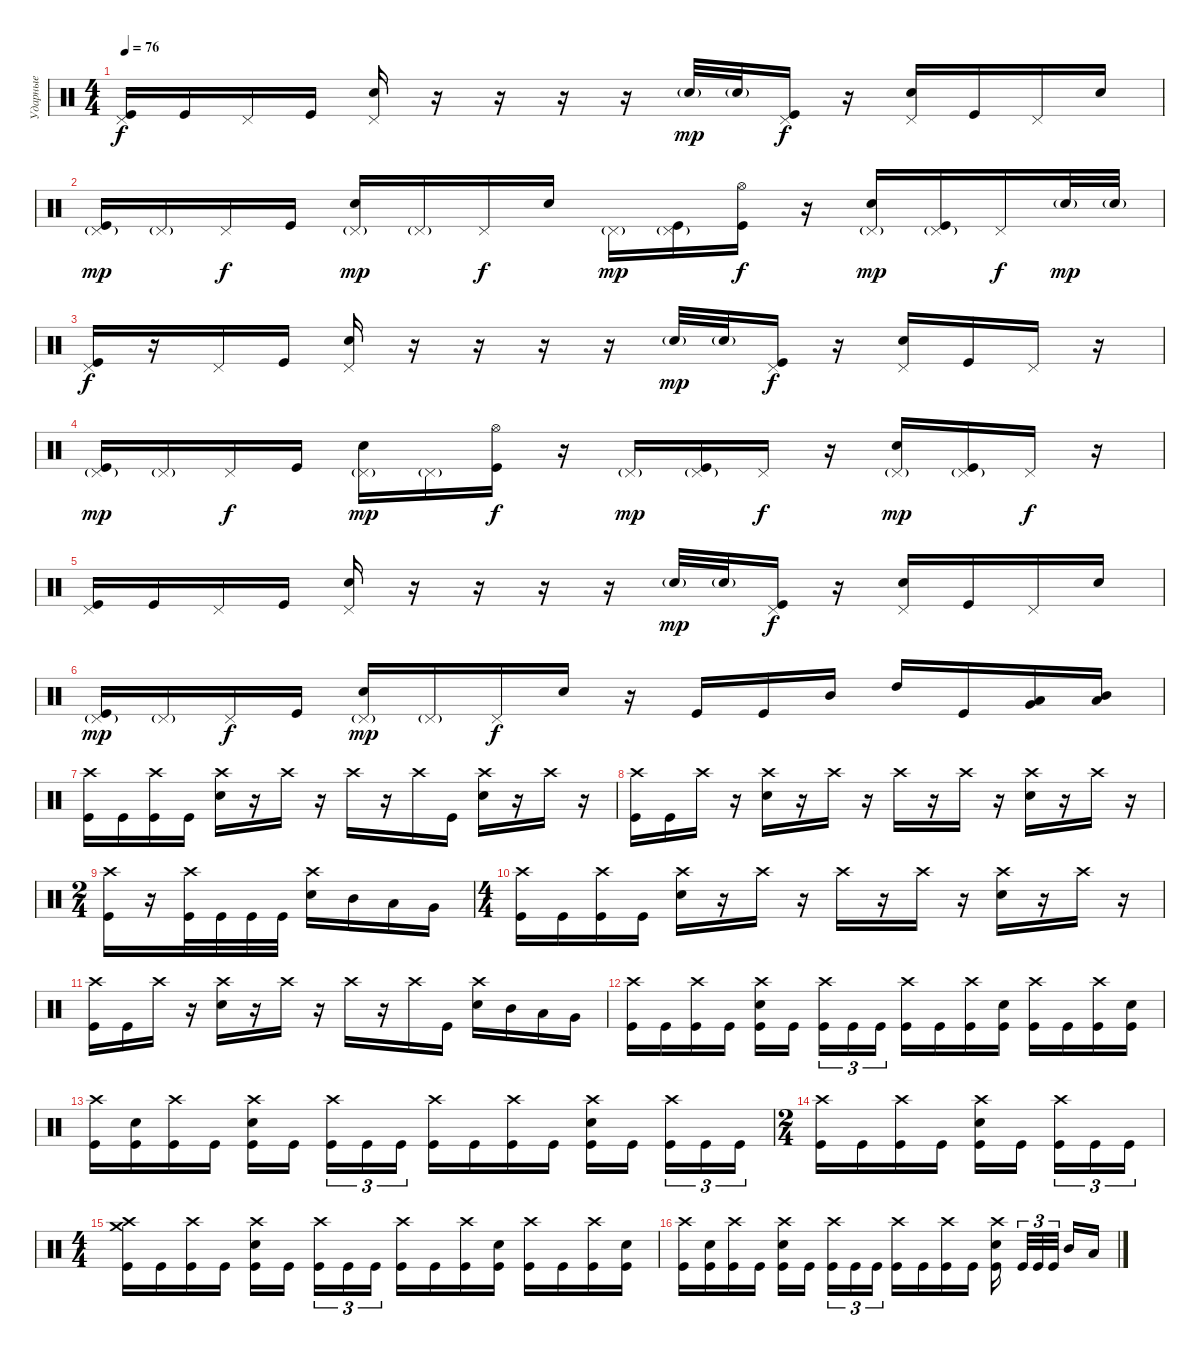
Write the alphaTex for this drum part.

\track ("Ударные" "Ударные") {instrument percussion}
\staff {score}
\articulation defaults
\ts (4 4)
\tempo 76
\clef neutral
\ks c
("Pedal Hi-Hat (hit)" "Kick (hit)").16{dy f} "Kick (hit)".16 "Pedal Hi-Hat (hit)".16 "Kick (hit)".16 ("Pedal Hi-Hat (hit)" "Snare (hit) 2").16 r.16 r.16 r.16 r.16 "Snare (hit) 2"{g}.32{dy mp} "Snare (hit) 2"{g}.32 ("Pedal Hi-Hat (hit)" "Kick (hit)").16{dy f} r.16 ("Pedal Hi-Hat (hit)" "Snare (hit) 2").16 "Kick (hit)".16 "Pedal Hi-Hat (hit)".16 "Snare (hit) 2".16 |
("Pedal Hi-Hat (hit)"{g} "Kick (hit)").16{dy mp} "Pedal Hi-Hat (hit)"{g}.16 "Pedal Hi-Hat (hit)".16{dy f} "Kick (hit)".16 ("Pedal Hi-Hat (hit)"{g} "Snare (hit) 2").16{dy mp} "Pedal Hi-Hat (hit)"{g}.16 "Pedal Hi-Hat (hit)".16{dy f} "Snare (hit) 2".16 "Pedal Hi-Hat (hit)"{g}.16{dy mp} ("Pedal Hi-Hat (hit)"{g} "Kick (hit)").16 ("Hi-Hat (open)" "Kick (hit)").16{dy f} r.16 ("Pedal Hi-Hat (hit)"{g} "Snare (hit) 2").16{dy mp} ("Pedal Hi-Hat (hit)"{g} "Kick (hit)").16 "Pedal Hi-Hat (hit)".16{dy f} "Snare (hit) 2"{g}.32{dy mp} "Snare (hit) 2"{g}.32 |
("Pedal Hi-Hat (hit)" "Kick (hit)").16{dy f} r.16 "Pedal Hi-Hat (hit)".16 "Kick (hit)".16 ("Pedal Hi-Hat (hit)" "Snare (hit) 2").16 r.16 r.16 r.16 r.16 "Snare (hit) 2"{g}.32{dy mp} "Snare (hit) 2"{g}.32 ("Pedal Hi-Hat (hit)" "Kick (hit)").16{dy f} r.16 ("Pedal Hi-Hat (hit)" "Snare (hit) 2").16 "Kick (hit)".16 "Pedal Hi-Hat (hit)".16 r.16 |
("Pedal Hi-Hat (hit)"{g} "Kick (hit)").16{dy mp} "Pedal Hi-Hat (hit)"{g}.16 "Pedal Hi-Hat (hit)".16{dy f} "Kick (hit)".16 ("Pedal Hi-Hat (hit)"{g} "Snare (hit) 2").16{dy mp} "Pedal Hi-Hat (hit)"{g}.16 ("Hi-Hat (open)" "Kick (hit)").16{dy f} r.16 "Pedal Hi-Hat (hit)"{g}.16{dy mp} ("Pedal Hi-Hat (hit)"{g} "Kick (hit)").16 "Pedal Hi-Hat (hit)".16{dy f} r.16 ("Pedal Hi-Hat (hit)"{g} "Snare (hit) 2").16{dy mp} ("Pedal Hi-Hat (hit)"{g} "Kick (hit)").16 "Pedal Hi-Hat (hit)".16{dy f} r.16 |
("Pedal Hi-Hat (hit)" "Kick (hit)").16 "Kick (hit)".16 "Pedal Hi-Hat (hit)".16 "Kick (hit)".16 ("Pedal Hi-Hat (hit)" "Snare (hit) 2").16 r.16 r.16 r.16 r.16 "Snare (hit) 2"{g}.32{dy mp} "Snare (hit) 2"{g}.32 ("Pedal Hi-Hat (hit)" "Kick (hit)").16{dy f} r.16 ("Pedal Hi-Hat (hit)" "Snare (hit) 2").16 "Kick (hit)".16 "Pedal Hi-Hat (hit)".16 "Snare (hit) 2".16 |
("Pedal Hi-Hat (hit)"{g} "Kick (hit)").16{dy mp} "Pedal Hi-Hat (hit)"{g}.16 "Pedal Hi-Hat (hit)".16{dy f} "Kick (hit)".16 ("Pedal Hi-Hat (hit)"{g} "Snare (hit) 2").16{dy mp} "Pedal Hi-Hat (hit)"{g}.16 "Pedal Hi-Hat (hit)".16{dy f} "Snare (hit) 2".16 r.16 "Kick (hit)".16 "Kick (hit)".16 "Mid Tom (hit)".16 "High Tom (hit)".16 "Kick (hit)".16 ("Low Tom (hit)" "Very Low Tom (hit)").16 ("Mid Tom (hit)" "Low Tom (hit)").16 |
("Crash high (hit)" "Kick (hit)").16 "Kick (hit)".16 ("Crash high (hit)" "Kick (hit)").16 "Kick (hit)".16 ("Crash high (hit)" "Snare (hit) 2").16 r.16 "Crash high (hit)".16 r.16 "Crash high (hit)".16 r.16 "Crash high (hit)".16 "Kick (hit)".16 ("Crash high (hit)" "Snare (hit) 2").16 r.16 "Crash high (hit)".16 r.16 |
("Crash high (hit)" "Kick (hit)").16 "Kick (hit)".16 "Crash high (hit)".16 r.16 ("Crash high (hit)" "Snare (hit) 2").16 r.16 "Crash high (hit)".16 r.16 "Crash high (hit)".16 r.16 "Crash high (hit)".16 r.16 ("Crash high (hit)" "Snare (hit) 2").16 r.16 "Crash high (hit)".16 r.16 |
\ts (2 4)
("Crash high (hit)" "Kick (hit)").16 r.16 ("Crash high (hit)" "Kick (hit)").32 "Kick (hit)".32 "Kick (hit)".32 "Kick (hit)".32 ("Crash high (hit)" "Snare (hit) 2").16 "Mid Tom (hit)".16 "Low Tom (hit)".16 "Very Low Tom (hit)".16 |
\ts (4 4)
("Crash high (hit)" "Kick (hit)").16 "Kick (hit)".16 ("Crash high (hit)" "Kick (hit)").16 "Kick (hit)".16 ("Crash high (hit)" "Snare (hit) 2").16 r.16 "Crash high (hit)".16 r.16 "Crash high (hit)".16 r.16 "Crash high (hit)".16 r.16 ("Crash high (hit)" "Snare (hit) 2").16 r.16 "Crash high (hit)".16 r.16 |
("Crash high (hit)" "Kick (hit)").16 "Kick (hit)".16 "Crash high (hit)".16 r.16 ("Crash high (hit)" "Snare (hit) 2").16 r.16 "Crash high (hit)".16 r.16 "Crash high (hit)".16 r.16 "Crash high (hit)".16 "Kick (hit)".16 ("Crash high (hit)" "Snare (hit) 2").16 "Mid Tom (hit)".16 "Low Tom (hit)".16 "Very Low Tom (hit)".16 |
("Crash high (hit)" "Kick (hit)").16 "Kick (hit)".16 ("Crash high (hit)" "Kick (hit)").16 "Kick (hit)".16 ("Crash high (hit)" "Snare (hit) 2" "Kick (hit)").16 "Kick (hit)".16 ("Crash high (hit)" "Kick (hit)").16{tu (3 2)} "Kick (hit)".16{tu (3 2)} "Kick (hit)".16{tu (3 2)} ("Crash high (hit)" "Kick (hit)").16 "Kick (hit)".16 ("Crash high (hit)" "Kick (hit)").16 ("Snare (hit) 2" "Kick (hit)").16 ("Crash high (hit)" "Kick (hit)").16 "Kick (hit)".16 ("Crash high (hit)" "Kick (hit)").16 ("Snare (hit) 2" "Kick (hit)").16 |
("Crash high (hit)" "Kick (hit)").16 ("Snare (hit) 2" "Kick (hit)").16 ("Crash high (hit)" "Kick (hit)").16 "Kick (hit)".16 ("Crash high (hit)" "Snare (hit) 2" "Kick (hit)").16 "Kick (hit)".16 ("Crash high (hit)" "Kick (hit)").16{tu (3 2)} "Kick (hit)".16{tu (3 2)} "Kick (hit)".16{tu (3 2)} ("Crash high (hit)" "Kick (hit)").16 "Kick (hit)".16 ("Crash high (hit)" "Kick (hit)").16 "Kick (hit)".16 ("Crash high (hit)" "Snare (hit) 2" "Kick (hit)").16 "Kick (hit)".16 ("Crash high (hit)" "Kick (hit)").16{tu (3 2)} "Kick (hit)".16{tu (3 2)} "Kick (hit)".16{tu (3 2)} |
\ts (2 4)
("Crash high (hit)" "Kick (hit)").16 "Kick (hit)".16 ("Crash high (hit)" "Kick (hit)").16 "Kick (hit)".16 ("Crash high (hit)" "Snare (hit) 2" "Kick (hit)").16 "Kick (hit)".16 ("Crash high (hit)" "Kick (hit)").16{tu (3 2)} "Kick (hit)".16{tu (3 2)} "Kick (hit)".16{tu (3 2)} |
\ts (4 4)
("Crash medium (hit)" "Crash high (hit)" "Kick (hit)").16 "Kick (hit)".16 ("Crash high (hit)" "Kick (hit)").16 "Kick (hit)".16 ("Crash high (hit)" "Snare (hit) 2" "Kick (hit)").16 "Kick (hit)".16 ("Crash high (hit)" "Kick (hit)").16{tu (3 2)} "Kick (hit)".16{tu (3 2)} "Kick (hit)".16{tu (3 2)} ("Crash high (hit)" "Kick (hit)").16 "Kick (hit)".16 ("Crash high (hit)" "Kick (hit)").16 ("Snare (hit) 2" "Kick (hit)").16 ("Crash high (hit)" "Kick (hit)").16 "Kick (hit)".16 ("Crash high (hit)" "Kick (hit)").16 ("Snare (hit) 2" "Kick (hit)").16 |
("Crash high (hit)" "Kick (hit)").16 ("Snare (hit) 2" "Kick (hit)").16 ("Crash high (hit)" "Kick (hit)").16 "Kick (hit)".16 ("Crash high (hit)" "Snare (hit) 2" "Kick (hit)").16 "Kick (hit)".16 ("Crash high (hit)" "Kick (hit)").16{tu (3 2)} "Kick (hit)".16{tu (3 2)} "Kick (hit)".16{tu (3 2)} ("Crash high (hit)" "Kick (hit)").16 "Kick (hit)".16 ("Crash high (hit)" "Kick (hit)").16 "Kick (hit)".16 ("Crash high (hit)" "Snare (hit) 2" "Kick (hit)").16 "Kick (hit)".32{tu (3 2)} "Kick (hit)".32{tu (3 2)} "Kick (hit)".32{tu (3 2)} "Mid Tom (hit)".16 "Low Tom (hit)".16
